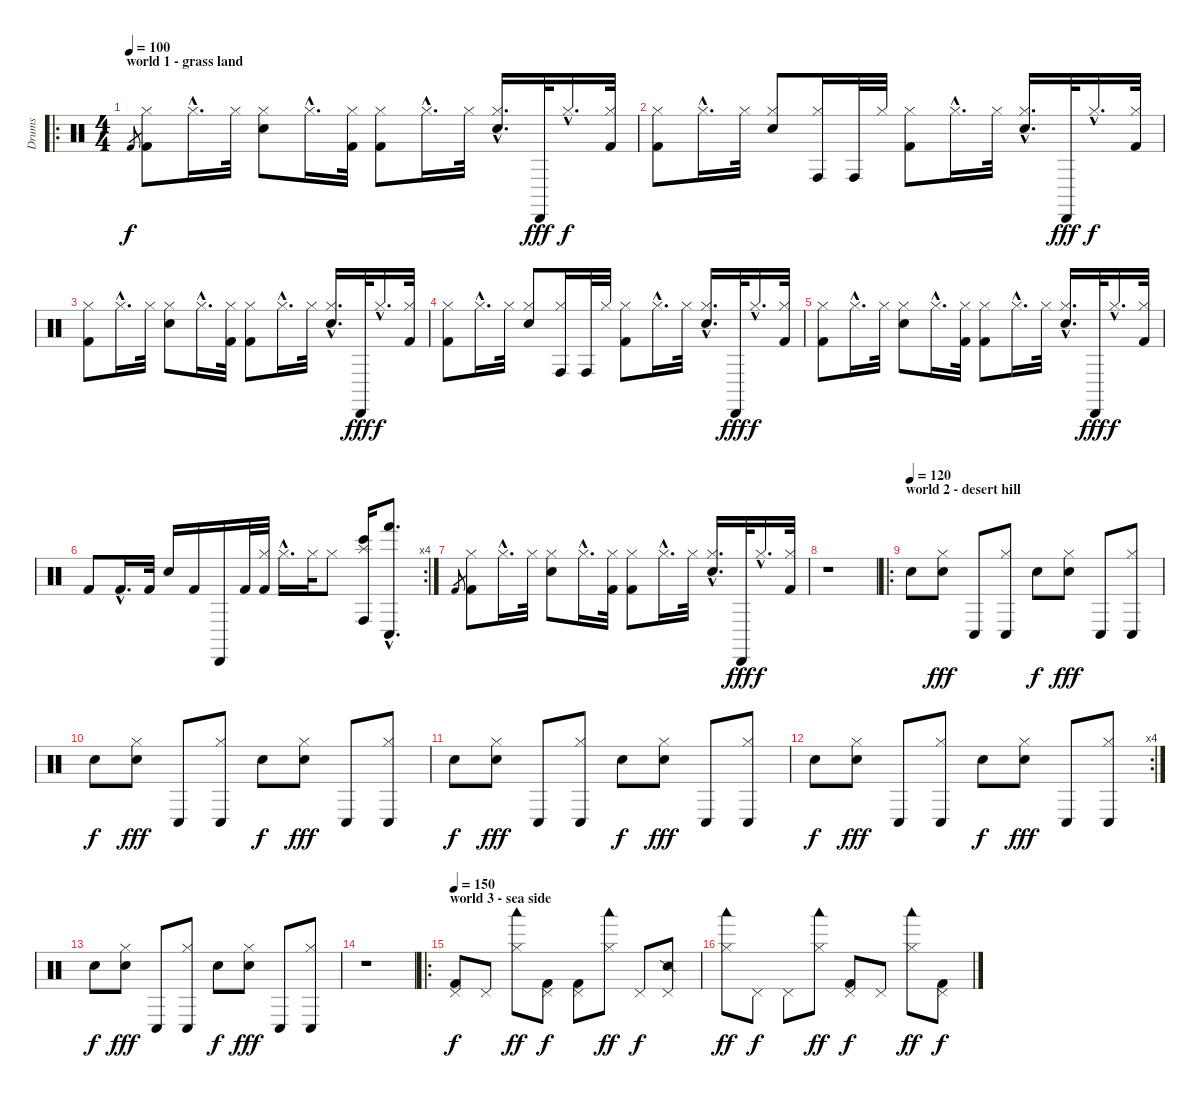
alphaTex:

\track ("Drums" "Drums") {instrument percussion}
\staff {score}
\articulation defaults
\ro
\ts (4 4)
\section ("" "world 1 - grass land")
\tempo 100
\clef neutral
\ks c "Kick (hit) 2".8{gr dy f}
("Hi-Hat (closed)" "Kick (hit) 2").8 "Hi-Hat (closed)"{hac}.16{d} "Hi-Hat (closed)".32 ("Hi-Hat (closed)" "Electric Snare (hit)").8 "Hi-Hat (closed)"{hac}.16{d} ("Hi-Hat (closed)" "Kick (hit) 2").32 ("Hi-Hat (closed)" "Kick (hit) 2").8 "Hi-Hat (closed)"{hac}.16{d} "Hi-Hat (closed)".32 ("Hi-Hat (closed)"{hac} "Electric Snare (hit)"{hac}).16{d} "Cabasa (hit)".32{dy fff} "Hi-Hat (closed)"{hac}.16{d dy f} ("Hi-Hat (closed)" "Kick (hit) 2").32 |
("Hi-Hat (closed)" "Kick (hit) 2").8 "Hi-Hat (closed)"{hac}.16{d} "Hi-Hat (closed)".32 ("Hi-Hat (closed)" "Electric Snare (hit)").8 ("Hi-Hat (closed)" "Conga high (hit)").16 "Conga high (hit)".32 "Hi-Hat (closed)".32 ("Hi-Hat (closed)" "Kick (hit) 2").8 "Hi-Hat (closed)"{hac}.16{d} "Hi-Hat (closed)".32 ("Hi-Hat (closed)"{hac} "Electric Snare (hit)"{hac}).16{d} "Cabasa (hit)".32{dy fff} "Hi-Hat (closed)"{hac}.16{d dy f} ("Hi-Hat (closed)" "Kick (hit) 2").32 |
("Hi-Hat (closed)" "Kick (hit) 2").8 "Hi-Hat (closed)"{hac}.16{d} "Hi-Hat (closed)".32 ("Hi-Hat (closed)" "Electric Snare (hit)").8 "Hi-Hat (closed)"{hac}.16{d} ("Hi-Hat (closed)" "Kick (hit) 2").32 ("Hi-Hat (closed)" "Kick (hit) 2").8 "Hi-Hat (closed)"{hac}.16{d} "Hi-Hat (closed)".32 ("Hi-Hat (closed)"{hac} "Electric Snare (hit)"{hac}).16{d} "Cabasa (hit)".32{dy fff} "Hi-Hat (closed)"{hac}.16{d dy f} ("Hi-Hat (closed)" "Kick (hit) 2").32 |
("Hi-Hat (closed)" "Kick (hit) 2").8 "Hi-Hat (closed)"{hac}.16{d} "Hi-Hat (closed)".32 ("Hi-Hat (closed)" "Electric Snare (hit)").8 ("Hi-Hat (closed)" "Conga high (hit)").16 "Conga high (hit)".32 "Hi-Hat (closed)".32 ("Hi-Hat (closed)" "Kick (hit) 2").8 "Hi-Hat (closed)"{hac}.16{d} "Hi-Hat (closed)".32 ("Hi-Hat (closed)"{hac} "Electric Snare (hit)"{hac}).16{d} "Cabasa (hit)".32{dy fff} "Hi-Hat (closed)"{hac}.16{d dy f} ("Hi-Hat (closed)" "Kick (hit) 2").32 |
("Hi-Hat (closed)" "Kick (hit) 2").8 "Hi-Hat (closed)"{hac}.16{d} "Hi-Hat (closed)".32 ("Hi-Hat (closed)" "Electric Snare (hit)").8 "Hi-Hat (closed)"{hac}.16{d} ("Hi-Hat (closed)" "Kick (hit) 2").32 ("Hi-Hat (closed)" "Kick (hit) 2").8 "Hi-Hat (closed)"{hac}.16{d} "Hi-Hat (closed)".32 ("Hi-Hat (closed)"{hac} "Electric Snare (hit)"{hac}).16{d} "Cabasa (hit)".32{dy fff} "Hi-Hat (closed)"{hac}.16{d dy f} ("Hi-Hat (closed)" "Kick (hit) 2").32 |
\rc 4 "Kick (hit) 2".8 "Kick (hit) 2"{hac}.16{d} "Kick (hit) 2".32 "Electric Snare (hit)".16 "Kick (hit) 2".16 "Cabasa (hit)".16 "Kick (hit) 2".32
("Hi-Hat (closed)" "Kick (hit) 2").32 "Hi-Hat (closed)"{hac}.16{d} "Hi-Hat (closed)".32 "Hi-Hat (closed)".8 ("Splash (hit)" "Bongo High (hit)" "Conga high (hit)").16 ("Hand (hit)"{hac} "Conga low (hit)"{hac}).8{d} |
"Kick (hit) 2".8{gr} ("Hi-Hat (closed)" "Kick (hit) 2").8 "Hi-Hat (closed)"{hac}.16{d} "Hi-Hat (closed)".32 ("Hi-Hat (closed)" "Electric Snare (hit)").8 "Hi-Hat (closed)"{hac}.16{d} ("Hi-Hat (closed)" "Kick (hit) 2").32 ("Hi-Hat (closed)" "Kick (hit) 2").8 "Hi-Hat (closed)"{hac}.16{d} "Hi-Hat (closed)".32 ("Hi-Hat (closed)"{hac} "Electric Snare (hit)"{hac}).16{d} "Cabasa (hit)".32{dy fff} "Hi-Hat (closed)"{hac}.16{d dy f} ("Hi-Hat (closed)" "Kick (hit) 2").32 |
r.1 |
\ro
\section ("" "world 2 - desert hill")
\tempo (120)
"Snare (hit) 2".8{volume 12 balance 0} ("Electric Snare (hit)" "Hi-Hat (closed)").8{dy fff balance 8} "Conga low (hit)".8{balance 16} ("Conga low (hit)" "Hi-Hat (closed)").8 "Snare (hit) 2".8{dy f balance 0} ("Electric Snare (hit)" "Hi-Hat (closed)").8{dy fff balance 8} "Conga low (hit)".8{balance 16} ("Conga low (hit)" "Hi-Hat (closed)").8 |
"Snare (hit) 2".8{dy f balance 0} ("Electric Snare (hit)" "Hi-Hat (closed)").8{dy fff balance 8} "Conga low (hit)".8{balance 16} ("Conga low (hit)" "Hi-Hat (closed)").8 "Snare (hit) 2".8{dy f balance 0} ("Electric Snare (hit)" "Hi-Hat (closed)").8{dy fff balance 8} "Conga low (hit)".8{balance 16} ("Conga low (hit)" "Hi-Hat (closed)").8 |
"Snare (hit) 2".8{dy f balance 0} ("Electric Snare (hit)" "Hi-Hat (closed)").8{dy fff balance 8} "Conga low (hit)".8{balance 16} ("Conga low (hit)" "Hi-Hat (closed)").8 "Snare (hit) 2".8{dy f balance 0} ("Electric Snare (hit)" "Hi-Hat (closed)").8{dy fff balance 8} "Conga low (hit)".8{balance 16} ("Conga low (hit)" "Hi-Hat (closed)").8 |
\rc 4 "Snare (hit) 2".8{dy f balance 0}
("Electric Snare (hit)" "Hi-Hat (closed)").8{dy fff balance 8} "Conga low (hit)".8{balance 16} ("Conga low (hit)" "Hi-Hat (closed)").8 "Snare (hit) 2".8{dy f balance 0} ("Electric Snare (hit)" "Hi-Hat (closed)").8{dy fff balance 8} "Conga low (hit)".8{balance 16} ("Conga low (hit)" "Hi-Hat (closed)").8 |
"Snare (hit) 2".8{dy f balance 8} ("Electric Snare (hit)" "Hi-Hat (closed)").8{dy fff} "Conga low (hit)".8 ("Conga low (hit)" "Hi-Hat (closed)").8 "Snare (hit) 2".8{dy f} ("Electric Snare (hit)" "Hi-Hat (closed)").8{dy fff} "Conga low (hit)".8 ("Conga low (hit)" "Hi-Hat (closed)").8 |
r.1 |
\ro
\section ("" "world 3 - sea side")
\tempo 150
("Pedal Hi-Hat (hit)" "Kick (hit) 2").8{dy f volume 12 balance 8} "Pedal Hi-Hat (hit)".8 ("Hi-Hat (closed)" "Woodblock low (hit)").8{dy ff} ("Pedal Hi-Hat (hit)" "Kick (hit) 2").8{dy f} ("Pedal Hi-Hat (hit)" "Kick (hit) 2").8 ("Hi-Hat (closed)" "Woodblock low (hit)").8{dy ff} "Pedal Hi-Hat (hit)".8{dy f} ("Pedal Hi-Hat (hit)" "Snare (side stick) 2").8 |
("Hi-Hat (closed)" "Woodblock low (hit)").8{dy ff} "Pedal Hi-Hat (hit)".8{dy f} "Pedal Hi-Hat (hit)".8 ("Hi-Hat (closed)" "Woodblock low (hit)").8{dy ff} ("Pedal Hi-Hat (hit)" "Kick (hit) 2").8{dy f} "Pedal Hi-Hat (hit)".8 ("Hi-Hat (closed)" "Woodblock low (hit)").8{dy ff} ("Pedal Hi-Hat (hit)" "Kick (hit) 2").8{dy f}
